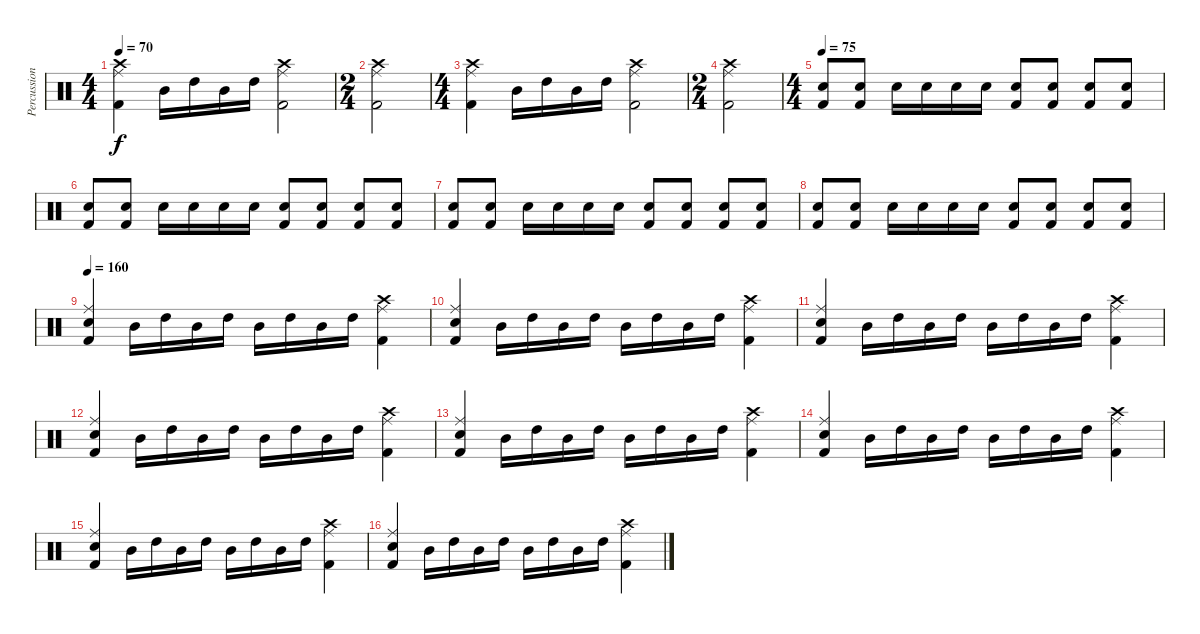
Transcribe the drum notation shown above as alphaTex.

\track ("Percussion" "Percussion") {instrument percussion}
\staff {score}
\articulation defaults
\ts (4 4)
\tempo 70
\clef neutral
\ks c
("Kick (hit) 2" "Ride (middle)" "Crash high (hit)").4{dy f} "Mid Tom (hit)".16 "High Tom (hit)".16 "Mid Tom (hit)".16 "High Tom (hit)".16 ("Kick (hit) 2" "Crash high (hit)" "Ride (middle)").2 |
\ts (2 4)
("Kick (hit) 2" "Ride (middle)" "Crash high (hit)").2 |
\ts (4 4)
("Kick (hit) 2" "Ride (middle)" "Crash high (hit)").4 "Mid Tom (hit)".16 "High Tom (hit)".16 "Mid Tom (hit)".16 "High Tom (hit)".16 ("Kick (hit) 2" "Crash high (hit)" "Ride (middle)").2 |
\ts (2 4)
("Kick (hit) 2" "Ride (middle)" "Crash high (hit)").2 |
\ts (4 4)
\tempo 75
("Electric Snare (hit)" "Kick (hit) 2").8 ("Electric Snare (hit)" "Kick (hit) 2").8 "Electric Snare (hit)".16 "Electric Snare (hit)".16 "Electric Snare (hit)".16 "Electric Snare (hit)".16 ("Electric Snare (hit)" "Kick (hit) 2").8 ("Electric Snare (hit)" "Kick (hit) 2").8 ("Electric Snare (hit)" "Kick (hit) 2").8 ("Electric Snare (hit)" "Kick (hit) 2").8 |
("Electric Snare (hit)" "Kick (hit) 2").8 ("Electric Snare (hit)" "Kick (hit) 2").8 "Electric Snare (hit)".16 "Electric Snare (hit)".16 "Electric Snare (hit)".16 "Electric Snare (hit)".16 ("Electric Snare (hit)" "Kick (hit) 2").8 ("Electric Snare (hit)" "Kick (hit) 2").8 ("Electric Snare (hit)" "Kick (hit) 2").8 ("Electric Snare (hit)" "Kick (hit) 2").8 |
("Electric Snare (hit)" "Kick (hit) 2").8 ("Electric Snare (hit)" "Kick (hit) 2").8 "Electric Snare (hit)".16 "Electric Snare (hit)".16 "Electric Snare (hit)".16 "Electric Snare (hit)".16 ("Electric Snare (hit)" "Kick (hit) 2").8 ("Electric Snare (hit)" "Kick (hit) 2").8 ("Electric Snare (hit)" "Kick (hit) 2").8 ("Electric Snare (hit)" "Kick (hit) 2").8 |
("Electric Snare (hit)" "Kick (hit) 2").8 ("Electric Snare (hit)" "Kick (hit) 2").8 "Electric Snare (hit)".16 "Electric Snare (hit)".16 "Electric Snare (hit)".16 "Electric Snare (hit)".16 ("Electric Snare (hit)" "Kick (hit) 2").8 ("Electric Snare (hit)" "Kick (hit) 2").8 ("Electric Snare (hit)" "Kick (hit) 2").8 ("Electric Snare (hit)" "Kick (hit) 2").8 |
\tempo 160
("Ride (middle)" "Electric Snare (hit)" "Kick (hit) 2").4 "Mid Tom (hit)".16 "High Tom (hit)".16 "Mid Tom (hit)".16 "High Tom (hit)".16 "Mid Tom (hit)".16 "High Tom (hit)".16 "Mid Tom (hit)".16 "High Tom (hit)".16 ("Ride (middle)" "Crash high (hit)" "Kick (hit) 2").4 |
("Ride (middle)" "Electric Snare (hit)" "Kick (hit) 2").4 "Mid Tom (hit)".16 "High Tom (hit)".16 "Mid Tom (hit)".16 "High Tom (hit)".16 "Mid Tom (hit)".16 "High Tom (hit)".16 "Mid Tom (hit)".16 "High Tom (hit)".16 ("Ride (middle)" "Crash high (hit)" "Kick (hit) 2").4 |
("Ride (middle)" "Electric Snare (hit)" "Kick (hit) 2").4 "Mid Tom (hit)".16 "High Tom (hit)".16 "Mid Tom (hit)".16 "High Tom (hit)".16 "Mid Tom (hit)".16 "High Tom (hit)".16 "Mid Tom (hit)".16 "High Tom (hit)".16 ("Ride (middle)" "Crash high (hit)" "Kick (hit) 2").4 |
("Ride (middle)" "Electric Snare (hit)" "Kick (hit) 2").4 "Mid Tom (hit)".16 "High Tom (hit)".16 "Mid Tom (hit)".16 "High Tom (hit)".16 "Mid Tom (hit)".16 "High Tom (hit)".16 "Mid Tom (hit)".16 "High Tom (hit)".16 ("Ride (middle)" "Crash high (hit)" "Kick (hit) 2").4 |
("Ride (middle)" "Electric Snare (hit)" "Kick (hit) 2").4 "Mid Tom (hit)".16 "High Tom (hit)".16 "Mid Tom (hit)".16 "High Tom (hit)".16 "Mid Tom (hit)".16 "High Tom (hit)".16 "Mid Tom (hit)".16 "High Tom (hit)".16 ("Ride (middle)" "Crash high (hit)" "Kick (hit) 2").4 |
("Ride (middle)" "Electric Snare (hit)" "Kick (hit) 2").4 "Mid Tom (hit)".16 "High Tom (hit)".16 "Mid Tom (hit)".16 "High Tom (hit)".16 "Mid Tom (hit)".16 "High Tom (hit)".16 "Mid Tom (hit)".16 "High Tom (hit)".16 ("Ride (middle)" "Crash high (hit)" "Kick (hit) 2").4 |
("Ride (middle)" "Electric Snare (hit)" "Kick (hit) 2").4 "Mid Tom (hit)".16 "High Tom (hit)".16 "Mid Tom (hit)".16 "High Tom (hit)".16 "Mid Tom (hit)".16 "High Tom (hit)".16 "Mid Tom (hit)".16 "High Tom (hit)".16 ("Ride (middle)" "Crash high (hit)" "Kick (hit) 2").4 |
("Ride (middle)" "Electric Snare (hit)" "Kick (hit) 2").4 "Mid Tom (hit)".16 "High Tom (hit)".16 "Mid Tom (hit)".16 "High Tom (hit)".16 "Mid Tom (hit)".16 "High Tom (hit)".16 "Mid Tom (hit)".16 "High Tom (hit)".16 ("Ride (middle)" "Crash high (hit)" "Kick (hit) 2").4
